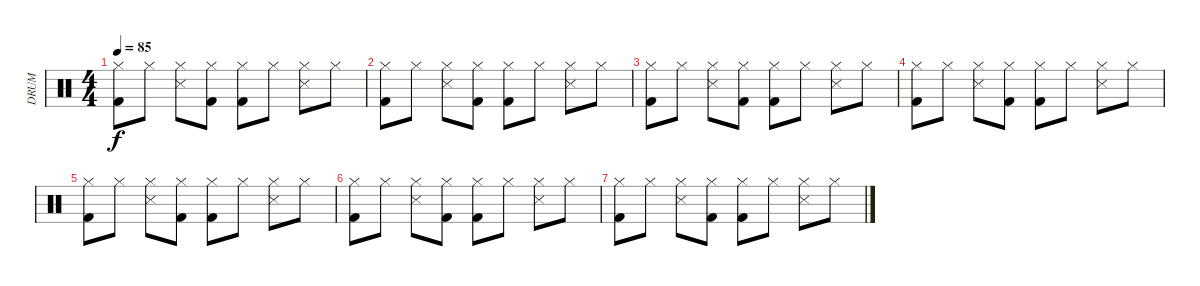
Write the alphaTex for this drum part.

\track ("DRUM" "DRUM") {instrument percussion}
\staff {score}
\articulation defaults
\ts (4 4)
\tempo 85
\clef neutral
\ks c
("Kick (hit) 2" "Hi-Hat (closed)").8{dy f} "Hi-Hat (closed)".8 ("Snare (side stick) 3" "Hi-Hat (closed)").8 ("Kick (hit) 2" "Hi-Hat (closed)").8 ("Kick (hit) 2" "Hi-Hat (closed)").8 "Hi-Hat (closed)".8 ("Snare (side stick) 3" "Hi-Hat (closed)").8 "Hi-Hat (closed)".8 |
("Kick (hit) 2" "Hi-Hat (closed)").8 "Hi-Hat (closed)".8 ("Snare (side stick) 3" "Hi-Hat (closed)").8 ("Kick (hit) 2" "Hi-Hat (closed)").8 ("Kick (hit) 2" "Hi-Hat (closed)").8 "Hi-Hat (closed)".8 ("Snare (side stick) 3" "Hi-Hat (closed)").8 "Hi-Hat (closed)".8 |
("Kick (hit) 2" "Hi-Hat (closed)").8 "Hi-Hat (closed)".8 ("Snare (side stick) 3" "Hi-Hat (closed)").8 ("Kick (hit) 2" "Hi-Hat (closed)").8 ("Kick (hit) 2" "Hi-Hat (closed)").8 "Hi-Hat (closed)".8 ("Snare (side stick) 3" "Hi-Hat (closed)").8 "Hi-Hat (closed)".8 |
("Kick (hit) 2" "Hi-Hat (closed)").8 "Hi-Hat (closed)".8 ("Snare (side stick) 3" "Hi-Hat (closed)").8 ("Kick (hit) 2" "Hi-Hat (closed)").8 ("Kick (hit) 2" "Hi-Hat (closed)").8 "Hi-Hat (closed)".8 ("Snare (side stick) 3" "Hi-Hat (closed)").8 "Hi-Hat (closed)".8 |
("Kick (hit) 2" "Hi-Hat (closed)").8 "Hi-Hat (closed)".8 ("Snare (side stick) 3" "Hi-Hat (closed)").8 ("Kick (hit) 2" "Hi-Hat (closed)").8 ("Kick (hit) 2" "Hi-Hat (closed)").8 "Hi-Hat (closed)".8 ("Snare (side stick) 3" "Hi-Hat (closed)").8 "Hi-Hat (closed)".8 |
("Kick (hit) 2" "Hi-Hat (closed)").8 "Hi-Hat (closed)".8 ("Snare (side stick) 3" "Hi-Hat (closed)").8 ("Kick (hit) 2" "Hi-Hat (closed)").8 ("Kick (hit) 2" "Hi-Hat (closed)").8 "Hi-Hat (closed)".8 ("Snare (side stick) 3" "Hi-Hat (closed)").8 "Hi-Hat (closed)".8 |
("Kick (hit) 2" "Hi-Hat (closed)").8 "Hi-Hat (closed)".8 ("Snare (side stick) 3" "Hi-Hat (closed)").8 ("Kick (hit) 2" "Hi-Hat (closed)").8 ("Kick (hit) 2" "Hi-Hat (closed)").8 "Hi-Hat (closed)".8 ("Snare (side stick) 3" "Hi-Hat (closed)").8 "Hi-Hat (closed)".8
